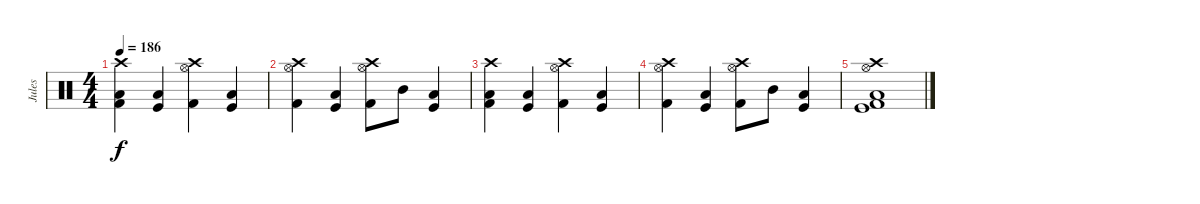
\track ("Jules" "Jules") {instrument percussion}
\staff {score}
\articulation defaults
\ts (4 4)
\tempo 186
\clef neutral
\ks c
("Kick (hit) 2" "Low Floor Tom (hit)" "Crash high (hit)").4{dy f} ("Kick (hit)" "Low Floor Tom (hit)").4 ("Kick (hit) 2" "Hi-Hat (open)" "Crash high (hit)").4 ("Kick (hit)" "Low Floor Tom (hit)").4 |
("Kick (hit) 2" "Hi-Hat (open)" "Crash high (hit)").4 ("Kick (hit)" "Low Floor Tom (hit)").4 ("Kick (hit) 2" "Hi-Hat (open)" "Crash high (hit)").8 "Mid Tom (hit)".8 ("Kick (hit)" "Low Floor Tom (hit)").4 |
("Kick (hit) 2" "Low Floor Tom (hit)" "Crash high (hit)").4 ("Kick (hit)" "Low Floor Tom (hit)").4 ("Kick (hit) 2" "Hi-Hat (open)" "Crash high (hit)").4 ("Kick (hit)" "Low Floor Tom (hit)").4 |
("Kick (hit) 2" "Hi-Hat (open)" "Crash high (hit)").4 ("Kick (hit)" "Low Floor Tom (hit)").4 ("Kick (hit) 2" "Hi-Hat (open)" "Crash high (hit)").8 "Mid Tom (hit)".8 ("Kick (hit)" "Low Floor Tom (hit)").4 |
("Kick (hit)" "Kick (hit) 2" "Low Floor Tom (hit)" "Crash high (hit)" "Hi-Hat (open)").1
